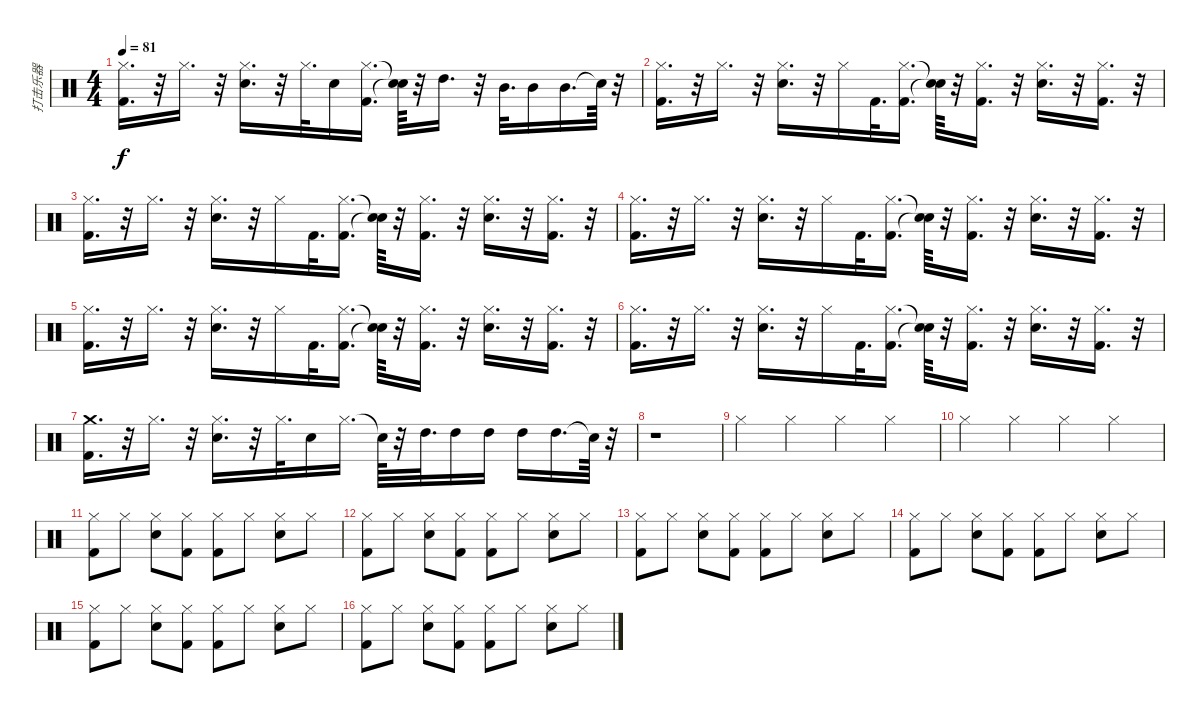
\track ("打击乐器" "打击乐器") {instrument percussion}
\staff {score}
\articulation defaults
\ts (4 4)
\tempo 81
\clef neutral
\ks c
("Kick (hit) 2" "Hi-Hat (closed)").16{d dy f} r.32 "Hi-Hat (closed)".16{d} r.32 ("Hi-Hat (closed)" "Snare (hit) 2").16{d} r.32 "Hi-Hat (closed)".32{d} "Snare (hit) 2".16 ("Kick (hit) 2" "Hi-Hat (closed)").16{d} ("Snare (hit)"{t} "Snare (hit)"{t}).64 r.32 "High Tom (hit)".16{d} r.32 "Mid Tom (hit)".32{d} "Mid Tom (hit)".16 "Mid Tom (hit)".16{d} "Snare (hit)"{t}.64 r.32 |
("Kick (hit) 2" "Hi-Hat (closed)").16{d} r.32 "Hi-Hat (closed)".16{d} r.32 ("Hi-Hat (closed)" "Snare (hit) 2").16{d} r.32 "Hi-Hat (closed)".16 "Kick (hit) 2".32{d} ("Hi-Hat (closed)" "Kick (hit) 2").16{d} ("Snare (hit)"{t} "Snare (hit)"{t}).64 r.32 ("Hi-Hat (closed)" "Kick (hit) 2").16{d} r.32 ("Snare (hit) 2" "Hi-Hat (closed)").16{d} r.32 ("Kick (hit) 2" "Hi-Hat (closed)").16{d} r.32 |
("Kick (hit) 2" "Hi-Hat (closed)").16{d} r.32 "Hi-Hat (closed)".16{d} r.32 ("Hi-Hat (closed)" "Snare (hit) 2").16{d} r.32 "Hi-Hat (closed)".16 "Kick (hit) 2".32{d} ("Hi-Hat (closed)" "Kick (hit) 2").16{d} ("Snare (hit)"{t} "Snare (hit)"{t}).64 r.32 ("Hi-Hat (closed)" "Kick (hit) 2").16{d} r.32 ("Snare (hit) 2" "Hi-Hat (closed)").16{d} r.32 ("Kick (hit) 2" "Hi-Hat (closed)").16{d} r.32 |
("Kick (hit) 2" "Hi-Hat (closed)").16{d} r.32 "Hi-Hat (closed)".16{d} r.32 ("Hi-Hat (closed)" "Snare (hit) 2").16{d} r.32 "Hi-Hat (closed)".16 "Kick (hit) 2".32{d} ("Hi-Hat (closed)" "Kick (hit) 2").16{d} ("Snare (hit)"{t} "Snare (hit)"{t}).64 r.32 ("Hi-Hat (closed)" "Kick (hit) 2").16{d} r.32 ("Snare (hit) 2" "Hi-Hat (closed)").16{d} r.32 ("Kick (hit) 2" "Hi-Hat (closed)").16{d} r.32 |
("Kick (hit) 2" "Hi-Hat (closed)").16{d} r.32 "Hi-Hat (closed)".16{d} r.32 ("Snare (hit) 2" "Hi-Hat (closed)").16{d} r.32 "Hi-Hat (closed)".16 "Kick (hit) 2".32{d} ("Hi-Hat (closed)" "Kick (hit) 2").16{d} ("Snare (hit)"{t} "Snare (hit)"{t}).64 r.32 ("Hi-Hat (closed)" "Kick (hit) 2").16{d} r.32 ("Snare (hit) 2" "Hi-Hat (closed)").16{d} r.32 ("Hi-Hat (closed)" "Kick (hit) 2").16{d} r.32 |
("Kick (hit) 2" "Hi-Hat (closed)").16{d} r.32 "Hi-Hat (closed)".16{d} r.32 ("Snare (hit) 2" "Hi-Hat (closed)").16{d} r.32 "Hi-Hat (closed)".16 "Kick (hit) 2".32{d} ("Hi-Hat (closed)" "Kick (hit) 2").16{d} ("Snare (hit)"{t} "Snare (hit)"{t}).64 r.32 ("Hi-Hat (closed)" "Kick (hit) 2").16{d} r.32 ("Snare (hit) 2" "Hi-Hat (closed)").16{d} r.32 ("Kick (hit) 2" "Hi-Hat (closed)").16{d} r.32 |
("Crash medium (hit)" "Kick (hit) 2").16{d} r.32 "Hi-Hat (closed)".16{d} r.32 ("Snare (hit) 2" "Hi-Hat (closed)").16{d} r.32 "Hi-Hat (closed)".32{d} "Snare (hit) 2".16 "Hi-Hat (closed)".16{d} "Snare (hit)"{t}.64 r.32 "High Tom (hit)".32{d} "High Tom (hit)".16 "High Tom (hit)".16 "High Tom (hit)".16 "High Tom (hit)".16{d} "Snare (hit)"{t}.64 r.32 |
r.1 |
"Hi-Hat (closed)".4 "Hi-Hat (closed)".4 "Hi-Hat (closed)".4 "Hi-Hat (closed)".4 |
"Hi-Hat (closed)".4 "Hi-Hat (closed)".4 "Hi-Hat (closed)".4 "Hi-Hat (closed)".4 |
("Kick (hit) 2" "Hi-Hat (closed)").8 "Hi-Hat (closed)".8 ("Hi-Hat (closed)" "Snare (hit) 2").8 ("Hi-Hat (closed)" "Kick (hit) 2").8 ("Kick (hit) 2" "Hi-Hat (closed)").8 "Hi-Hat (closed)".8 ("Hi-Hat (closed)" "Snare (hit) 2").8 "Hi-Hat (closed)".8 |
("Kick (hit) 2" "Hi-Hat (closed)").8 "Hi-Hat (closed)".8 ("Hi-Hat (closed)" "Snare (hit) 2").8 ("Hi-Hat (closed)" "Kick (hit) 2").8 ("Kick (hit) 2" "Hi-Hat (closed)").8 "Hi-Hat (closed)".8 ("Hi-Hat (closed)" "Snare (hit) 2").8 "Hi-Hat (closed)".8 |
("Kick (hit) 2" "Hi-Hat (closed)").8 "Hi-Hat (closed)".8 ("Hi-Hat (closed)" "Snare (hit) 2").8 ("Hi-Hat (closed)" "Kick (hit) 2").8 ("Kick (hit) 2" "Hi-Hat (closed)").8 "Hi-Hat (closed)".8 ("Hi-Hat (closed)" "Snare (hit) 2").8 "Hi-Hat (closed)".8 |
("Kick (hit) 2" "Hi-Hat (closed)").8 "Hi-Hat (closed)".8 ("Hi-Hat (closed)" "Snare (hit) 2").8 ("Hi-Hat (closed)" "Kick (hit) 2").8 ("Kick (hit) 2" "Hi-Hat (closed)").8 "Hi-Hat (closed)".8 ("Hi-Hat (closed)" "Snare (hit) 2").8 "Hi-Hat (closed)".8 |
("Kick (hit) 2" "Hi-Hat (closed)").8 "Hi-Hat (closed)".8 ("Hi-Hat (closed)" "Snare (hit) 2").8 ("Hi-Hat (closed)" "Kick (hit) 2").8 ("Kick (hit) 2" "Hi-Hat (closed)").8 "Hi-Hat (closed)".8 ("Hi-Hat (closed)" "Snare (hit) 2").8 "Hi-Hat (closed)".8 |
("Kick (hit) 2" "Hi-Hat (closed)").8 "Hi-Hat (closed)".8 ("Hi-Hat (closed)" "Snare (hit) 2").8 ("Hi-Hat (closed)" "Kick (hit) 2").8 ("Kick (hit) 2" "Hi-Hat (closed)").8 "Hi-Hat (closed)".8 ("Hi-Hat (closed)" "Snare (hit) 2").8 "Hi-Hat (closed)".8
